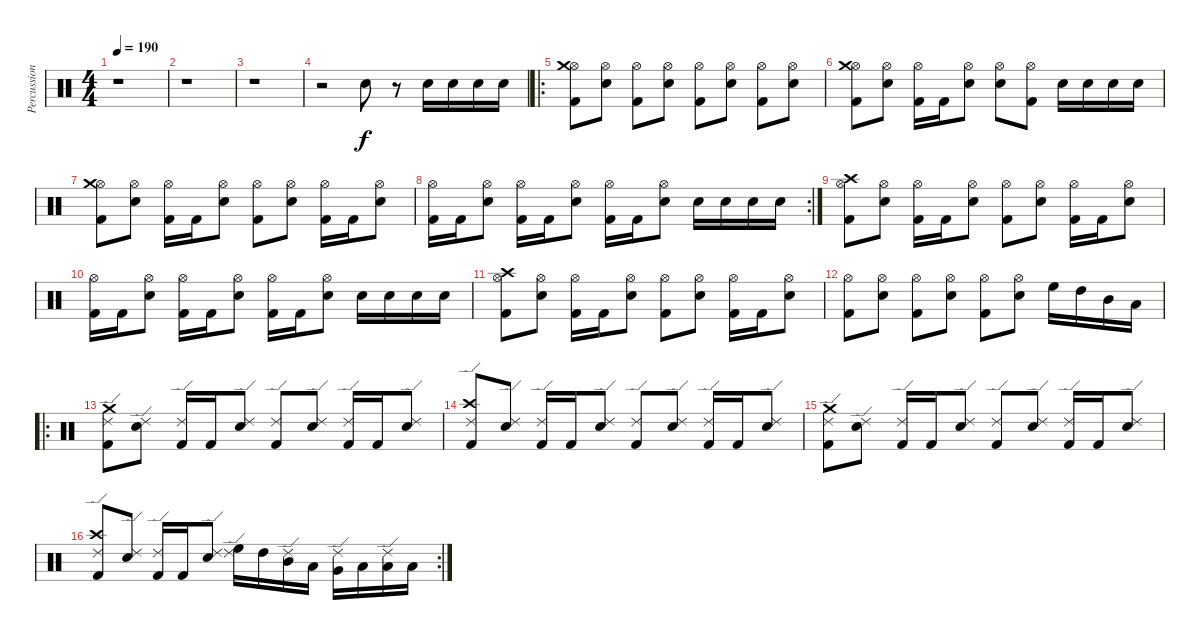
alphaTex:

\track ("Percussion" "Percussion") {instrument percussion}
\staff {score}
\articulation defaults
\ts (4 4)
\tempo 190
\clef neutral
\ks c
r.1{dy f} |
r.1 |
r.1 |
r.2 "Snare (hit) 2".8 r.8 "Snare (hit) 2".16 "Snare (hit) 2".16 "Snare (hit) 2".16 "Snare (hit) 2".16 |
\ro
("Hi-Hat (open)" "Crash medium (hit)" "Kick (hit) 2").8 ("Hi-Hat (open)" "Snare (hit) 2").8 ("Hi-Hat (open)" "Kick (hit) 2").8 ("Hi-Hat (open)" "Snare (hit) 2").8 ("Hi-Hat (open)" "Kick (hit) 2").8 ("Hi-Hat (open)" "Snare (hit) 2").8 ("Hi-Hat (open)" "Kick (hit) 2").8 ("Hi-Hat (open)" "Snare (hit) 2").8 |
("Hi-Hat (open)" "Crash medium (hit)" "Kick (hit) 2").8 ("Hi-Hat (open)" "Snare (hit) 2").8 ("Hi-Hat (open)" "Kick (hit) 2").16 "Kick (hit) 2".16 ("Hi-Hat (open)" "Snare (hit) 2").8 ("Hi-Hat (open)" "Snare (hit) 2").8 ("Hi-Hat (open)" "Kick (hit) 2").8 "Snare (hit) 2".16 "Snare (hit) 2".16 "Snare (hit) 2".16 "Snare (hit) 2".16 |
("Hi-Hat (open)" "Crash medium (hit)" "Kick (hit) 2").8 ("Hi-Hat (open)" "Snare (hit) 2").8 ("Hi-Hat (open)" "Kick (hit) 2").16 "Kick (hit) 2".16 ("Hi-Hat (open)" "Snare (hit) 2").8 ("Hi-Hat (open)" "Kick (hit) 2").8 ("Hi-Hat (open)" "Snare (hit) 2").8 ("Hi-Hat (open)" "Kick (hit) 2").16 "Kick (hit) 2".16 ("Hi-Hat (open)" "Snare (hit) 2").8 |
\rc 2
("Hi-Hat (open)" "Kick (hit) 2").16 "Kick (hit) 2".16 ("Hi-Hat (open)" "Snare (hit) 2").8 ("Hi-Hat (open)" "Kick (hit) 2").16 "Kick (hit) 2".16 ("Hi-Hat (open)" "Snare (hit) 2").8 ("Hi-Hat (open)" "Kick (hit) 2").16 "Kick (hit) 2".16 ("Hi-Hat (open)" "Snare (hit) 2").8 "Snare (hit) 2".16 "Snare (hit) 2".16 "Snare (hit) 2".16 "Snare (hit) 2".16 |
("Hi-Hat (open)" "Crash high (hit)" "Kick (hit) 2").8 ("Hi-Hat (open)" "Snare (hit) 2").8 ("Hi-Hat (open)" "Kick (hit) 2").16 "Kick (hit) 2".16 ("Hi-Hat (open)" "Snare (hit) 2").8 ("Hi-Hat (open)" "Kick (hit) 2").8 ("Hi-Hat (open)" "Snare (hit) 2").8 ("Hi-Hat (open)" "Kick (hit) 2").16 "Kick (hit) 2".16 ("Hi-Hat (open)" "Snare (hit) 2").8 |
("Hi-Hat (open)" "Kick (hit) 2").16 "Kick (hit) 2".16 ("Hi-Hat (open)" "Snare (hit) 2").8 ("Hi-Hat (open)" "Kick (hit) 2").16 "Kick (hit) 2".16 ("Hi-Hat (open)" "Snare (hit) 2").8 ("Hi-Hat (open)" "Kick (hit) 2").16 "Kick (hit) 2".16 ("Hi-Hat (open)" "Snare (hit) 2").8 "Snare (hit) 2".16 "Snare (hit) 2".16 "Snare (hit) 2".16 "Snare (hit) 2".16 |
("Hi-Hat (open)" "Crash high (hit)" "Kick (hit) 2").8 ("Hi-Hat (open)" "Snare (hit) 2").8 ("Hi-Hat (open)" "Kick (hit) 2").16 "Kick (hit) 2".16 ("Hi-Hat (open)" "Snare (hit) 2").8 ("Hi-Hat (open)" "Kick (hit) 2").8 ("Hi-Hat (open)" "Snare (hit) 2").8 ("Hi-Hat (open)" "Kick (hit) 2").16 "Kick (hit) 2".16 ("Hi-Hat (open)" "Snare (hit) 2").8 |
("Hi-Hat (open)" "Kick (hit) 2").8 ("Hi-Hat (open)" "Snare (hit) 2").8 ("Hi-Hat (open)" "Kick (hit) 2").8 ("Hi-Hat (open)" "Snare (hit) 2").8 ("Hi-Hat (open)" "Kick (hit) 2").8 ("Hi-Hat (open)" "Snare (hit) 2").8 "High Floor Tom (hit)".16 "High Tom (hit)".16 "Mid Tom (hit)".16 "Low Tom (hit)".16 |
\ro
("Ride (edge) 2" "Crash medium (hit)" "Kick (hit) 2").8 ("Ride (edge) 2" "Snare (hit) 2").8 ("Ride (edge) 2" "Kick (hit) 2").16 "Kick (hit) 2".16 ("Ride (edge) 2" "Snare (hit) 2").8 ("Ride (edge) 2" "Kick (hit) 2").8 ("Ride (edge) 2" "Snare (hit) 2").8 ("Ride (edge) 2" "Kick (hit) 2").16 "Kick (hit) 2".16 ("Ride (edge) 2" "Snare (hit) 2").8 |
("Ride (edge) 2" "Crash high (hit)" "Kick (hit) 2").8 ("Ride (edge) 2" "Snare (hit) 2").8 ("Ride (edge) 2" "Kick (hit) 2").16 "Kick (hit) 2".16 ("Ride (edge) 2" "Snare (hit) 2").8 ("Ride (edge) 2" "Kick (hit) 2").8 ("Ride (edge) 2" "Snare (hit) 2").8 ("Ride (edge) 2" "Kick (hit) 2").16 "Kick (hit) 2".16 ("Ride (edge) 2" "Snare (hit) 2").8 |
("Ride (edge) 2" "Crash medium (hit)" "Kick (hit) 2").8 ("Ride (edge) 2" "Snare (hit) 2").8 ("Ride (edge) 2" "Kick (hit) 2").16 "Kick (hit) 2".16 ("Ride (edge) 2" "Snare (hit) 2").8 ("Ride (edge) 2" "Kick (hit) 2").8 ("Ride (edge) 2" "Snare (hit) 2").8 ("Ride (edge) 2" "Kick (hit) 2").16 "Kick (hit) 2".16 ("Ride (edge) 2" "Snare (hit) 2").8 |
\rc 2
("Ride (edge) 2" "Crash high (hit)" "Kick (hit) 2").8 ("Ride (edge) 2" "Snare (hit) 2").8 ("Ride (edge) 2" "Kick (hit) 2").16 "Kick (hit) 2".16 ("Ride (edge) 2" "Snare (hit) 2").8 ("Ride (edge) 2" "High Floor Tom (hit)").16 "High Tom (hit)".16 ("Ride (edge) 2" "Mid Tom (hit)").16 "Low Tom (hit)".16 ("Ride (edge) 2" "Very Low Tom (hit)").16 "Low Floor Tom (hit)".16 ("Ride (edge) 2" "Low Floor Tom (hit)").16 "Low Floor Tom (hit)".16
